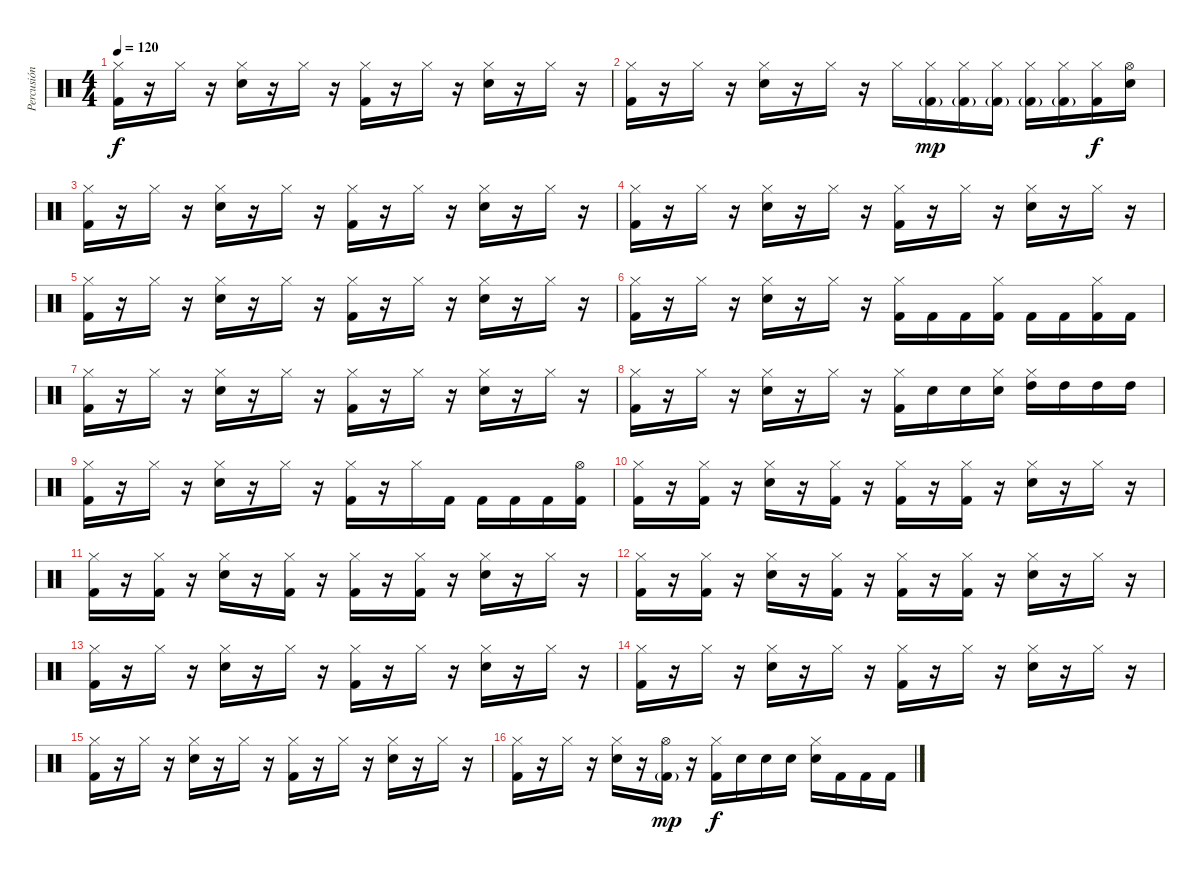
\track ("Percusión" "Percusión") {instrument percussion}
\staff {score}
\articulation defaults
\ts (4 4)
\tempo 120
\clef neutral
\ks c
("Hi-Hat (closed)" "Kick (hit) 2").16{dy f} r.16 "Hi-Hat (closed)".16 r.16 ("Hi-Hat (closed)" "Snare (hit) 2").16 r.16 "Hi-Hat (closed)".16 r.16 ("Hi-Hat (closed)" "Kick (hit) 2").16 r.16 "Hi-Hat (closed)".16 r.16 ("Hi-Hat (closed)" "Snare (hit) 2").16 r.16 "Hi-Hat (closed)".16 r.16 |
("Hi-Hat (closed)" "Kick (hit) 2").16 r.16 "Hi-Hat (closed)".16 r.16 ("Hi-Hat (closed)" "Snare (hit) 2").16 r.16 "Hi-Hat (closed)".16 r.16 "Hi-Hat (closed)".16 ("Hi-Hat (closed)" "Kick (hit) 2"{g}).16{dy mp} ("Hi-Hat (closed)" "Kick (hit) 2"{g}).16 ("Hi-Hat (closed)" "Kick (hit) 2"{g}).16 ("Hi-Hat (closed)" "Kick (hit) 2"{g}).16 ("Hi-Hat (closed)" "Kick (hit) 2"{g}).16 ("Hi-Hat (closed)" "Kick (hit) 2").16{dy f} ("Hi-Hat (open)" "Snare (hit) 2").16 |
("Hi-Hat (closed)" "Kick (hit) 2").16 r.16 "Hi-Hat (closed)".16 r.16 ("Hi-Hat (closed)" "Snare (hit) 2").16 r.16 "Hi-Hat (closed)".16 r.16 ("Hi-Hat (closed)" "Kick (hit) 2").16 r.16 "Hi-Hat (closed)".16 r.16 ("Hi-Hat (closed)" "Snare (hit) 2").16 r.16 "Hi-Hat (closed)".16 r.16 |
("Hi-Hat (closed)" "Kick (hit) 2").16 r.16 "Hi-Hat (closed)".16 r.16 ("Hi-Hat (closed)" "Snare (hit) 2").16 r.16 "Hi-Hat (closed)".16 r.16 ("Hi-Hat (closed)" "Kick (hit) 2").16 r.16 "Hi-Hat (closed)".16 r.16 ("Hi-Hat (closed)" "Snare (hit) 2").16 r.16 "Hi-Hat (closed)".16 r.16 |
("Hi-Hat (closed)" "Kick (hit) 2").16 r.16 "Hi-Hat (closed)".16 r.16 ("Hi-Hat (closed)" "Snare (hit) 2").16 r.16 "Hi-Hat (closed)".16 r.16 ("Hi-Hat (closed)" "Kick (hit) 2").16 r.16 "Hi-Hat (closed)".16 r.16 ("Hi-Hat (closed)" "Snare (hit) 2").16 r.16 "Hi-Hat (closed)".16 r.16 |
("Hi-Hat (closed)" "Kick (hit) 2").16 r.16 "Hi-Hat (closed)".16 r.16 ("Hi-Hat (closed)" "Snare (hit) 2").16 r.16 "Hi-Hat (closed)".16 r.16 ("Hi-Hat (closed)" "Kick (hit) 2").16 "Kick (hit) 2".16 "Kick (hit) 2".16 ("Hi-Hat (closed)" "Kick (hit) 2").16 "Kick (hit) 2".16 "Kick (hit) 2".16 ("Hi-Hat (closed)" "Kick (hit) 2").16 "Kick (hit) 2".16 |
("Hi-Hat (closed)" "Kick (hit) 2").16 r.16 "Hi-Hat (closed)".16 r.16 ("Hi-Hat (closed)" "Snare (hit) 2").16 r.16 "Hi-Hat (closed)".16 r.16 ("Hi-Hat (closed)" "Kick (hit) 2").16 r.16 "Hi-Hat (closed)".16 r.16 ("Hi-Hat (closed)" "Snare (hit) 2").16 r.16 "Hi-Hat (closed)".16 r.16 |
("Hi-Hat (closed)" "Kick (hit) 2").16 r.16 "Hi-Hat (closed)".16 r.16 ("Hi-Hat (closed)" "Snare (hit) 2").16 r.16 "Hi-Hat (closed)".16 r.16 ("Hi-Hat (closed)" "Kick (hit) 2").16 "Snare (hit) 2".16 "Snare (hit) 2".16 ("Hi-Hat (closed)" "Snare (hit) 2").16 ("Hi-Hat (closed)" "High Tom (hit)").16 "High Tom (hit)".16 "High Tom (hit)".16 "High Tom (hit)".16 |
("Hi-Hat (closed)" "Kick (hit) 2").16 r.16 "Hi-Hat (closed)".16 r.16 ("Hi-Hat (closed)" "Snare (hit) 2").16 r.16 "Hi-Hat (closed)".16 r.16 ("Hi-Hat (closed)" "Kick (hit) 2").16 r.16 "Hi-Hat (closed)".16 "Kick (hit) 2".16 "Kick (hit) 2".16 "Kick (hit) 2".16 "Kick (hit) 2".16 ("Hi-Hat (open)" "Kick (hit) 2").16 |
("Hi-Hat (closed)" "Kick (hit) 2").16 r.16 ("Hi-Hat (closed)" "Kick (hit) 2").16 r.16 ("Hi-Hat (closed)" "Snare (hit) 2").16 r.16 ("Hi-Hat (closed)" "Kick (hit) 2").16 r.16 ("Hi-Hat (closed)" "Kick (hit) 2").16 r.16 ("Hi-Hat (closed)" "Kick (hit) 2").16 r.16 ("Hi-Hat (closed)" "Snare (hit) 2").16 r.16 "Hi-Hat (closed)".16 r.16 |
("Hi-Hat (closed)" "Kick (hit) 2").16 r.16 ("Hi-Hat (closed)" "Kick (hit) 2").16 r.16 ("Hi-Hat (closed)" "Snare (hit) 2").16 r.16 ("Hi-Hat (closed)" "Kick (hit) 2").16 r.16 ("Hi-Hat (closed)" "Kick (hit) 2").16 r.16 ("Hi-Hat (closed)" "Kick (hit) 2").16 r.16 ("Hi-Hat (closed)" "Snare (hit) 2").16 r.16 "Hi-Hat (closed)".16 r.16 |
("Hi-Hat (closed)" "Kick (hit) 2").16 r.16 ("Hi-Hat (closed)" "Kick (hit) 2").16 r.16 ("Hi-Hat (closed)" "Snare (hit) 2").16 r.16 ("Hi-Hat (closed)" "Kick (hit) 2").16 r.16 ("Hi-Hat (closed)" "Kick (hit) 2").16 r.16 ("Hi-Hat (closed)" "Kick (hit) 2").16 r.16 ("Hi-Hat (closed)" "Snare (hit) 2").16 r.16 "Hi-Hat (closed)".16 r.16 |
("Hi-Hat (closed)" "Kick (hit) 2").16 r.16 "Hi-Hat (closed)".16 r.16 ("Hi-Hat (closed)" "Snare (hit) 2").16 r.16 "Hi-Hat (closed)".16 r.16 ("Hi-Hat (closed)" "Kick (hit) 2").16 r.16 "Hi-Hat (closed)".16 r.16 ("Hi-Hat (closed)" "Snare (hit) 2").16 r.16 "Hi-Hat (closed)".16 r.16 |
("Hi-Hat (closed)" "Kick (hit) 2").16 r.16 "Hi-Hat (closed)".16 r.16 ("Hi-Hat (closed)" "Snare (hit) 2").16 r.16 "Hi-Hat (closed)".16 r.16 ("Hi-Hat (closed)" "Kick (hit) 2").16 r.16 "Hi-Hat (closed)".16 r.16 ("Hi-Hat (closed)" "Snare (hit) 2").16 r.16 "Hi-Hat (closed)".16 r.16 |
("Hi-Hat (closed)" "Kick (hit) 2").16 r.16 "Hi-Hat (closed)".16 r.16 ("Hi-Hat (closed)" "Snare (hit) 2").16 r.16 "Hi-Hat (closed)".16 r.16 ("Hi-Hat (closed)" "Kick (hit) 2").16 r.16 "Hi-Hat (closed)".16 r.16 ("Hi-Hat (closed)" "Snare (hit) 2").16 r.16 "Hi-Hat (closed)".16 r.16 |
("Hi-Hat (closed)" "Kick (hit) 2").16 r.16 "Hi-Hat (closed)".16 r.16 ("Hi-Hat (closed)" "Snare (hit) 2").16 r.16 ("Hi-Hat (open)" "Kick (hit) 2"{g}).16{dy mp} r.16 ("Hi-Hat (closed)" "Kick (hit) 2").16{dy f} "Snare (hit) 2".16 "Snare (hit) 2".16 "Snare (hit) 2".16 ("Hi-Hat (closed)" "Snare (hit) 2").16 "Kick (hit) 2".16 "Kick (hit) 2".16 "Kick (hit) 2".16
